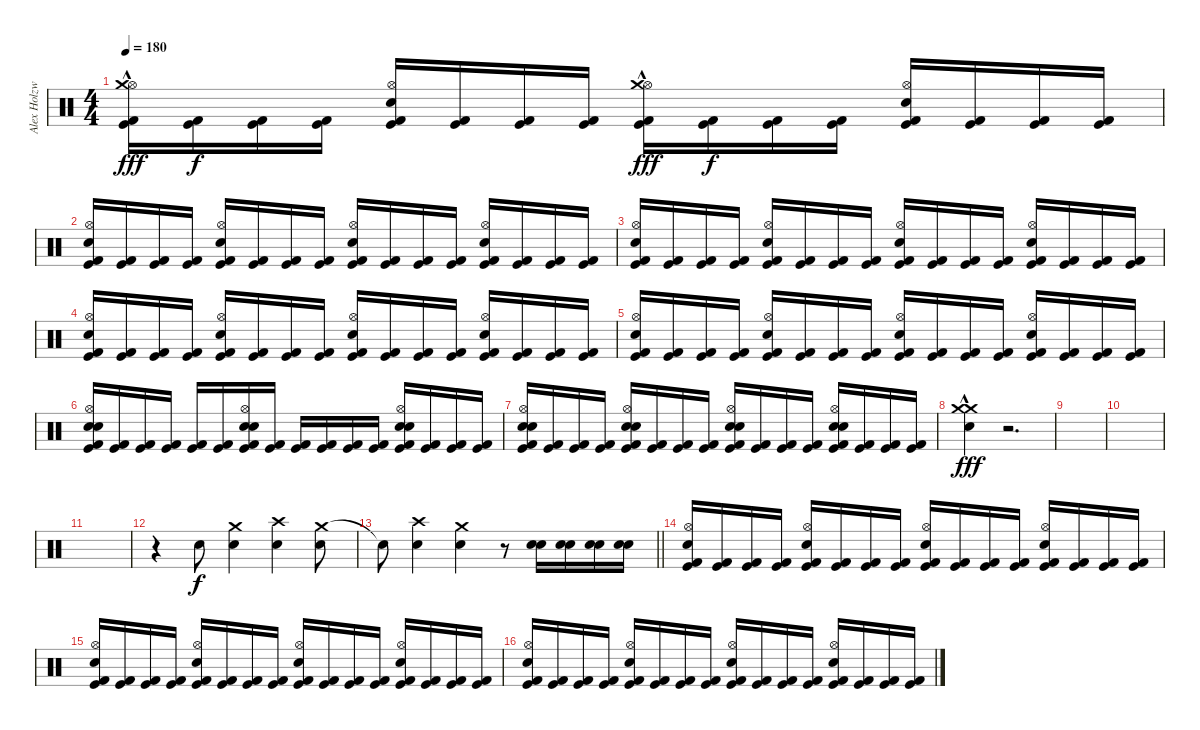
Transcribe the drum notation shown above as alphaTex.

\track ("Alex Holzwarth" "Alex Holzw") {instrument percussion}
\staff {score}
\articulation defaults
\ts (4 4)
\tempo 180
\clef neutral
\ks c
("Kick (hit) 2" "Kick (hit)" "Hi-Hat (open)" "Crash medium (hit)"{hac}).16{dy fff} ("Kick (hit) 2" "Kick (hit)").16{dy f} ("Kick (hit) 2" "Kick (hit)").16 ("Kick (hit) 2" "Kick (hit)").16 ("Kick (hit) 2" "Kick (hit)" "Hi-Hat (open)" "Snare (hit) 2").16 ("Kick (hit) 2" "Kick (hit)").16 ("Kick (hit) 2" "Kick (hit)").16 ("Kick (hit) 2" "Kick (hit)").16 ("Kick (hit) 2" "Kick (hit)" "Hi-Hat (open)" "Crash medium (hit)"{hac}).16{dy fff} ("Kick (hit) 2" "Kick (hit)").16{dy f} ("Kick (hit) 2" "Kick (hit)").16 ("Kick (hit) 2" "Kick (hit)").16 ("Kick (hit) 2" "Kick (hit)" "Hi-Hat (open)" "Snare (hit) 2").16 ("Kick (hit) 2" "Kick (hit)").16 ("Kick (hit) 2" "Kick (hit)").16 ("Kick (hit) 2" "Kick (hit)").16 |
("Kick (hit) 2" "Kick (hit)" "Snare (hit) 2" "Hi-Hat (open)").16 ("Kick (hit) 2" "Kick (hit)").16 ("Kick (hit) 2" "Kick (hit)").16 ("Kick (hit) 2" "Kick (hit)").16 ("Kick (hit) 2" "Kick (hit)" "Hi-Hat (open)" "Snare (hit) 2").16 ("Kick (hit) 2" "Kick (hit)").16 ("Kick (hit) 2" "Kick (hit)").16 ("Kick (hit) 2" "Kick (hit)").16 ("Kick (hit) 2" "Kick (hit)" "Hi-Hat (open)" "Snare (hit) 2").16 ("Kick (hit) 2" "Kick (hit)").16 ("Kick (hit) 2" "Kick (hit)").16 ("Kick (hit) 2" "Kick (hit)").16 ("Kick (hit) 2" "Kick (hit)" "Hi-Hat (open)" "Snare (hit) 2").16 ("Kick (hit) 2" "Kick (hit)").16 ("Kick (hit) 2" "Kick (hit)").16 ("Kick (hit) 2" "Kick (hit)").16 |
("Kick (hit) 2" "Kick (hit)" "Snare (hit) 2" "Hi-Hat (open)").16 ("Kick (hit) 2" "Kick (hit)").16 ("Kick (hit) 2" "Kick (hit)").16 ("Kick (hit) 2" "Kick (hit)").16 ("Kick (hit) 2" "Kick (hit)" "Hi-Hat (open)" "Snare (hit) 2").16 ("Kick (hit) 2" "Kick (hit)").16 ("Kick (hit) 2" "Kick (hit)").16 ("Kick (hit) 2" "Kick (hit)").16 ("Kick (hit) 2" "Kick (hit)" "Hi-Hat (open)" "Snare (hit) 2").16 ("Kick (hit) 2" "Kick (hit)").16 ("Kick (hit) 2" "Kick (hit)").16 ("Kick (hit) 2" "Kick (hit)").16 ("Kick (hit) 2" "Kick (hit)" "Hi-Hat (open)" "Snare (hit) 2").16 ("Kick (hit) 2" "Kick (hit)").16 ("Kick (hit) 2" "Kick (hit)").16 ("Kick (hit) 2" "Kick (hit)").16 |
("Kick (hit) 2" "Kick (hit)" "Snare (hit) 2" "Hi-Hat (open)").16 ("Kick (hit) 2" "Kick (hit)").16 ("Kick (hit) 2" "Kick (hit)").16 ("Kick (hit) 2" "Kick (hit)").16 ("Kick (hit) 2" "Kick (hit)" "Hi-Hat (open)" "Snare (hit) 2").16 ("Kick (hit) 2" "Kick (hit)").16 ("Kick (hit) 2" "Kick (hit)").16 ("Kick (hit) 2" "Kick (hit)").16 ("Kick (hit) 2" "Kick (hit)" "Hi-Hat (open)" "Snare (hit) 2").16 ("Kick (hit) 2" "Kick (hit)").16 ("Kick (hit) 2" "Kick (hit)").16 ("Kick (hit) 2" "Kick (hit)").16 ("Kick (hit) 2" "Kick (hit)" "Hi-Hat (open)" "Snare (hit) 2").16 ("Kick (hit) 2" "Kick (hit)").16 ("Kick (hit) 2" "Kick (hit)").16 ("Kick (hit) 2" "Kick (hit)").16 |
("Kick (hit) 2" "Kick (hit)" "Snare (hit) 2" "Hi-Hat (open)").16 ("Kick (hit) 2" "Kick (hit)").16 ("Kick (hit) 2" "Kick (hit)").16 ("Kick (hit) 2" "Kick (hit)").16 ("Kick (hit) 2" "Kick (hit)" "Hi-Hat (open)" "Snare (hit) 2").16 ("Kick (hit) 2" "Kick (hit)").16 ("Kick (hit) 2" "Kick (hit)").16 ("Kick (hit) 2" "Kick (hit)").16 ("Kick (hit) 2" "Kick (hit)" "Hi-Hat (open)" "Snare (hit) 2").16 ("Kick (hit) 2" "Kick (hit)").16 ("Kick (hit) 2" "Kick (hit)").16 ("Kick (hit) 2" "Kick (hit)").16 ("Kick (hit) 2" "Kick (hit)" "Hi-Hat (open)" "Snare (hit) 2").16 ("Kick (hit) 2" "Kick (hit)").16 ("Kick (hit) 2" "Kick (hit)").16 ("Kick (hit) 2" "Kick (hit)").16 |
("Kick (hit) 2" "Kick (hit)" "Snare (hit) 2" "Electric Snare (hit)" "Hi-Hat (open)").16 ("Kick (hit) 2" "Kick (hit)").16 ("Kick (hit) 2" "Kick (hit)").16 ("Kick (hit) 2" "Kick (hit)").16 ("Kick (hit) 2" "Kick (hit)").16 ("Kick (hit) 2" "Kick (hit)").16 ("Kick (hit) 2" "Kick (hit)" "Snare (hit) 2" "Electric Snare (hit)" "Hi-Hat (open)").16 ("Kick (hit) 2" "Kick (hit)").16 ("Kick (hit) 2" "Kick (hit)").16 ("Kick (hit) 2" "Kick (hit)").16 ("Kick (hit) 2" "Kick (hit)").16 ("Kick (hit) 2" "Kick (hit)").16 ("Kick (hit) 2" "Kick (hit)" "Snare (hit) 2" "Electric Snare (hit)" "Hi-Hat (open)").16 ("Kick (hit) 2" "Kick (hit)").16 ("Kick (hit) 2" "Kick (hit)").16 ("Kick (hit) 2" "Kick (hit)").16 |
("Kick (hit) 2" "Kick (hit)" "Snare (hit) 2" "Electric Snare (hit)" "Hi-Hat (open)").16 ("Kick (hit) 2" "Kick (hit)").16 ("Kick (hit) 2" "Kick (hit)").16 ("Kick (hit) 2" "Kick (hit)").16 ("Kick (hit) 2" "Kick (hit)" "Snare (hit) 2" "Electric Snare (hit)" "Hi-Hat (open)").16 ("Kick (hit) 2" "Kick (hit)").16 ("Kick (hit) 2" "Kick (hit)").16 ("Kick (hit) 2" "Kick (hit)").16 ("Kick (hit) 2" "Kick (hit)" "Hi-Hat (open)" "Snare (hit) 2" "Electric Snare (hit)").16 ("Kick (hit) 2" "Kick (hit)").16 ("Kick (hit) 2" "Kick (hit)").16 ("Kick (hit) 2" "Kick (hit)").16 ("Kick (hit) 2" "Kick (hit)" "Snare (hit) 2" "Electric Snare (hit)" "Hi-Hat (open)").16 ("Kick (hit) 2" "Kick (hit)").16 ("Kick (hit) 2" "Kick (hit)").16 ("Kick (hit) 2" "Kick (hit)").16 |
("Crash medium (hit)"{hac} "Snare (hit) 2" "Crash medium (hit)"{hac}).4{dy fff volume 13} r.2{d volume 0} |
|
|
|
r.4 "Snare (hit) 2".8{dy f} ("Crash medium (hit)" "Snare (hit) 2").4 ("Crash high (hit)" "Snare (hit) 2").4 ("Crash medium (hit)" "Snare (hit) 2").8 |
\barLineRight lightlight "Snare (hit)"{t}.8
("Crash high (hit)" "Snare (hit) 2").4 ("Crash medium (hit)" "Snare (hit) 2").4 r.8 ("Snare (hit) 2" "Electric Snare (hit)").16 ("Snare (hit) 2" "Electric Snare (hit)").16 ("Snare (hit) 2" "Electric Snare (hit)").16 ("Snare (hit) 2" "Electric Snare (hit)").16 |
("Kick (hit) 2" "Kick (hit)" "Snare (hit) 2" "Hi-Hat (open)").16 ("Kick (hit) 2" "Kick (hit)").16 ("Kick (hit) 2" "Kick (hit)").16 ("Kick (hit) 2" "Kick (hit)").16 ("Kick (hit) 2" "Kick (hit)" "Hi-Hat (open)" "Snare (hit) 2").16 ("Kick (hit) 2" "Kick (hit)").16 ("Kick (hit) 2" "Kick (hit)").16 ("Kick (hit) 2" "Kick (hit)").16 ("Kick (hit) 2" "Kick (hit)" "Hi-Hat (open)" "Snare (hit) 2").16 ("Kick (hit) 2" "Kick (hit)").16 ("Kick (hit) 2" "Kick (hit)").16 ("Kick (hit) 2" "Kick (hit)").16 ("Kick (hit) 2" "Kick (hit)" "Hi-Hat (open)" "Snare (hit) 2").16 ("Kick (hit) 2" "Kick (hit)").16 ("Kick (hit) 2" "Kick (hit)").16 ("Kick (hit) 2" "Kick (hit)").16 |
("Kick (hit) 2" "Kick (hit)" "Snare (hit) 2" "Hi-Hat (open)").16 ("Kick (hit) 2" "Kick (hit)").16 ("Kick (hit) 2" "Kick (hit)").16 ("Kick (hit) 2" "Kick (hit)").16 ("Kick (hit) 2" "Kick (hit)" "Hi-Hat (open)" "Snare (hit) 2").16 ("Kick (hit) 2" "Kick (hit)").16 ("Kick (hit) 2" "Kick (hit)").16 ("Kick (hit) 2" "Kick (hit)").16 ("Kick (hit) 2" "Kick (hit)" "Hi-Hat (open)" "Snare (hit) 2").16 ("Kick (hit) 2" "Kick (hit)").16 ("Kick (hit) 2" "Kick (hit)").16 ("Kick (hit) 2" "Kick (hit)").16 ("Kick (hit) 2" "Kick (hit)" "Hi-Hat (open)" "Snare (hit) 2").16 ("Kick (hit) 2" "Kick (hit)").16 ("Kick (hit) 2" "Kick (hit)").16 ("Kick (hit) 2" "Kick (hit)").16 |
("Kick (hit) 2" "Kick (hit)" "Snare (hit) 2" "Hi-Hat (open)").16 ("Kick (hit) 2" "Kick (hit)").16 ("Kick (hit) 2" "Kick (hit)").16 ("Kick (hit) 2" "Kick (hit)").16 ("Kick (hit) 2" "Kick (hit)" "Hi-Hat (open)" "Snare (hit) 2").16 ("Kick (hit) 2" "Kick (hit)").16 ("Kick (hit) 2" "Kick (hit)").16 ("Kick (hit) 2" "Kick (hit)").16 ("Kick (hit) 2" "Kick (hit)" "Hi-Hat (open)" "Snare (hit) 2").16 ("Kick (hit) 2" "Kick (hit)").16 ("Kick (hit) 2" "Kick (hit)").16 ("Kick (hit) 2" "Kick (hit)").16 ("Kick (hit) 2" "Kick (hit)" "Hi-Hat (open)" "Snare (hit) 2").16 ("Kick (hit) 2" "Kick (hit)").16 ("Kick (hit) 2" "Kick (hit)").16 ("Kick (hit) 2" "Kick (hit)").16
